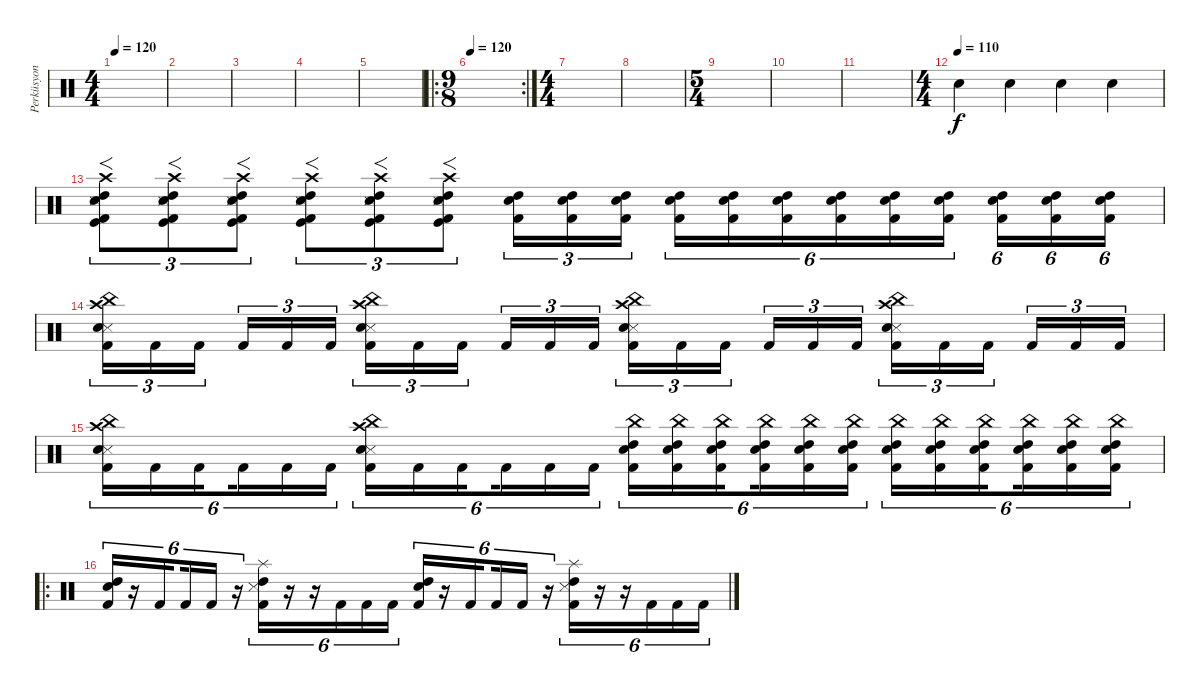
\track ("Perküsyon" "Perküsyon") {instrument percussion}
\staff {score}
\articulation defaults
\ts (4 4)
\tempo 120
\clef neutral
\ks c
|
|
|
|
|
\ro
\rc 2
\ts (9 8)
\tempo 120
|
\ts (4 4)
|
|
\ts (5 4)
|
|
|
\ts (4 4)
\tempo (110)
"Snare (hit) 2".4 "Snare (hit) 2".4 "Snare (hit) 2".4 "Snare (hit) 2".4 |
("Kick (hit) 2" "Snare (side stick) 3" "Snare (hit) 2" "High Tom (hit)" "Kick (hit)" "Crash high (hit)").8{f tu (3 2)} ("Kick (hit) 2" "Snare (hit) 2" "High Tom (hit)" "Snare (side stick) 3" "Kick (hit)" "Crash high (hit)").8{f tu (3 2)} ("Kick (hit) 2" "Snare (hit) 2" "High Tom (hit)" "Snare (side stick) 3" "Kick (hit)" "Crash high (hit)").8{f tu (3 2)} ("Kick (hit) 2" "Snare (hit) 2" "High Tom (hit)" "Snare (side stick) 3" "Kick (hit)" "Crash high (hit)").8{f tu (3 2)} ("Kick (hit) 2" "Snare (hit) 2" "High Tom (hit)" "Snare (side stick) 3" "Kick (hit)" "Crash high (hit)").8{f tu (3 2)} ("Kick (hit) 2" "Snare (hit) 2" "High Tom (hit)" "Snare (side stick) 3" "Kick (hit)" "Crash high (hit)").8{f tu (3 2)} ("Kick (hit) 2" "Snare (hit) 2" "High Tom (hit)").16{tu (3 2)} ("Kick (hit) 2" "Snare (hit) 2" "High Tom (hit)").16{tu (3 2)} ("Kick (hit) 2" "Snare (hit) 2" "High Tom (hit)").16{tu (3 2) beam splitsecondary} ("Kick (hit) 2" "Snare (hit) 2" "High Tom (hit)").16{tu (6 4)} ("Kick (hit) 2" "Snare (hit) 2" "High Tom (hit)").16{tu (6 4)} ("Kick (hit) 2" "Snare (hit) 2" "High Tom (hit)").16{tu (6 4)} ("Kick (hit) 2" "Snare (hit) 2" "High Tom (hit)").16{tu (6 4)} ("Kick (hit) 2" "Snare (hit) 2" "High Tom (hit)").16{tu (6 4)} ("Kick (hit) 2" "Snare (hit) 2" "High Tom (hit)").16{tu (6 4) beam splitsecondary} ("Kick (hit) 2" "Snare (hit) 2" "High Tom (hit)").16{tu (6 4)} ("Kick (hit) 2" "Snare (hit) 2" "High Tom (hit)").16{tu (6 4)} ("Kick (hit) 2" "Snare (hit) 2" "High Tom (hit)").16{tu (6 4)} |
("China (hit)" "Snare (side stick) 3" "Snare (hit) 2" "Crash high (hit)" "Kick (hit) 2").16{tu (3 2)} "Kick (hit) 2".16{tu (3 2)} "Kick (hit) 2".16{tu (3 2) beam splitsecondary} "Kick (hit) 2".16{tu (3 2)} "Kick (hit) 2".16{tu (3 2)} "Kick (hit) 2".16{tu (3 2)} ("China (hit)" "Snare (side stick) 3" "Snare (hit) 2" "Crash high (hit)" "Kick (hit) 2").16{tu (3 2)} "Kick (hit) 2".16{tu (3 2)} "Kick (hit) 2".16{tu (3 2) beam splitsecondary} "Kick (hit) 2".16{tu (3 2)} "Kick (hit) 2".16{tu (3 2)} "Kick (hit) 2".16{tu (3 2)} ("China (hit)" "Snare (side stick) 3" "Snare (hit) 2" "Crash high (hit)" "Kick (hit) 2").16{tu (3 2)} "Kick (hit) 2".16{tu (3 2)} "Kick (hit) 2".16{tu (3 2) beam splitsecondary} "Kick (hit) 2".16{tu (3 2)} "Kick (hit) 2".16{tu (3 2)} "Kick (hit) 2".16{tu (3 2)} ("China (hit)" "Snare (side stick) 3" "Snare (hit) 2" "Crash high (hit)" "Kick (hit) 2").16{tu (3 2)} "Kick (hit) 2".16{tu (3 2)} "Kick (hit) 2".16{tu (3 2) beam splitsecondary} "Kick (hit) 2".16{tu (3 2)} "Kick (hit) 2".16{tu (3 2)} "Kick (hit) 2".16{tu (3 2)} |
("China (hit)" "Snare (side stick) 3" "Snare (hit) 2" "Crash high (hit)" "Kick (hit) 2").16{tu (6 4)} "Kick (hit) 2".16{tu (6 4)} "Kick (hit) 2".16{tu (6 4) beam splitsecondary} "Kick (hit) 2".16{tu (6 4)} "Kick (hit) 2".16{tu (6 4)} "Kick (hit) 2".16{tu (6 4)} ("China (hit)" "Snare (side stick) 3" "Snare (hit) 2" "Crash high (hit)" "Kick (hit) 2").16{tu (6 4)} "Kick (hit) 2".16{tu (6 4)} "Kick (hit) 2".16{tu (6 4) beam splitsecondary} "Kick (hit) 2".16{tu (6 4)} "Kick (hit) 2".16{tu (6 4)} "Kick (hit) 2".16{tu (6 4)} ("China (hit)" "High Tom (hit)" "Snare (hit) 2" "Kick (hit) 2").16{tu (6 4)} ("China (hit)" "High Tom (hit)" "Snare (hit) 2" "Kick (hit) 2").16{tu (6 4)} ("China (hit)" "High Tom (hit)" "Snare (hit) 2" "Kick (hit) 2").16{tu (6 4) beam splitsecondary} ("China (hit)" "High Tom (hit)" "Snare (hit) 2" "Kick (hit) 2").16{tu (6 4)} ("China (hit)" "High Tom (hit)" "Snare (hit) 2" "Kick (hit) 2").16{tu (6 4)} ("China (hit)" "High Tom (hit)" "Snare (hit) 2" "Kick (hit) 2").16{tu (6 4)} ("China (hit)" "High Tom (hit)" "Snare (hit) 2" "Kick (hit) 2").16{tu (6 4)} ("China (hit)" "High Tom (hit)" "Snare (hit) 2" "Kick (hit) 2").16{tu (6 4)} ("China (hit)" "High Tom (hit)" "Snare (hit) 2" "Kick (hit) 2").16{tu (6 4) beam splitsecondary} ("China (hit)" "High Tom (hit)" "Snare (hit) 2" "Kick (hit) 2").16{tu (6 4)} ("China (hit)" "High Tom (hit)" "Snare (hit) 2" "Kick (hit) 2").16{tu (6 4)} ("China (hit)" "High Tom (hit)" "Snare (hit) 2" "Kick (hit) 2").16{tu (6 4)} |
\ro
("Snare (hit) 2" "High Tom (hit)" "Kick (hit) 2").16{tu (6 4)} r.16{tu (6 4)} "Kick (hit) 2".16{tu (6 4) beam splitsecondary} "Kick (hit) 2".16{tu (6 4)} "Kick (hit) 2".16{tu (6 4)} r.16{tu (6 4)} ("Splash (hit)" "Snare (side stick) 3" "High Tom (hit)" "Kick (hit) 2").16{tu (6 4)} r.16{tu (6 4)} r.16{tu (6 4)} "Kick (hit) 2".16{tu (6 4)} "Kick (hit) 2".16{tu (6 4)} "Kick (hit) 2".16{tu (6 4)} ("Snare (hit) 2" "High Tom (hit)" "Kick (hit) 2").16{tu (6 4)} r.16{tu (6 4)} "Kick (hit) 2".16{tu (6 4) beam splitsecondary} "Kick (hit) 2".16{tu (6 4)} "Kick (hit) 2".16{tu (6 4)} r.16{tu (6 4)} ("Splash (hit)" "Snare (side stick) 3" "High Tom (hit)" "Kick (hit) 2").16{tu (6 4)} r.16{tu (6 4)} r.16{tu (6 4)} "Kick (hit) 2".16{tu (6 4)} "Kick (hit) 2".16{tu (6 4)} "Kick (hit) 2".16{tu (6 4)}
